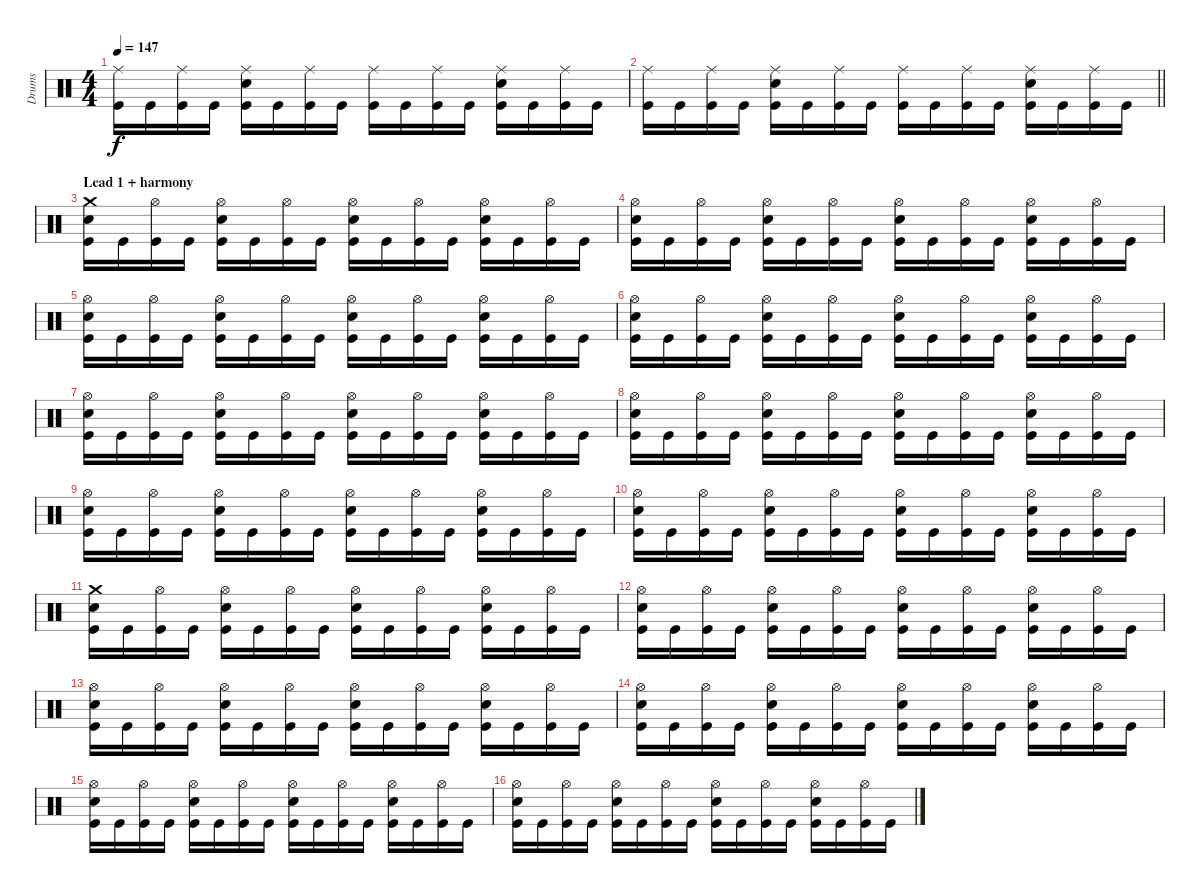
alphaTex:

\track ("Drums" "Drums") {instrument percussion}
\staff {score}
\articulation defaults
\ts (4 4)
\tempo 147
\clef neutral
\ks c
("Ride (middle)" "Kick (hit)").16{dy f} "Kick (hit)".16 ("Ride (middle)" "Kick (hit)").16 "Kick (hit)".16 ("Electric Snare (hit)" "Ride (middle)" "Kick (hit)").16 "Kick (hit)".16 ("Ride (middle)" "Kick (hit)").16 "Kick (hit)".16 ("Ride (middle)" "Kick (hit)").16 "Kick (hit)".16 ("Ride (middle)" "Kick (hit)").16 "Kick (hit)".16 ("Electric Snare (hit)" "Ride (middle)" "Kick (hit)").16 "Kick (hit)".16 ("Ride (middle)" "Kick (hit)").16 "Kick (hit)".16 |
\barLineRight lightlight
("Ride (middle)" "Kick (hit)").16 "Kick (hit)".16 ("Ride (middle)" "Kick (hit)").16 "Kick (hit)".16 ("Electric Snare (hit)" "Ride (middle)" "Kick (hit)").16 "Kick (hit)".16 ("Ride (middle)" "Kick (hit)").16 "Kick (hit)".16 ("Ride (middle)" "Kick (hit)").16 "Kick (hit)".16 ("Ride (middle)" "Kick (hit)").16 "Kick (hit)".16 ("Electric Snare (hit)" "Ride (middle)" "Kick (hit)").16 "Kick (hit)".16 ("Ride (middle)" "Kick (hit)").16 "Kick (hit)".16 |
\section ("" "Lead 1 + harmony")
("Electric Snare (hit)" "Crash medium (hit)" "Kick (hit)").16 "Kick (hit)".16 ("Hi-Hat (open)" "Kick (hit)").16 "Kick (hit)".16 ("Electric Snare (hit)" "Hi-Hat (open)" "Kick (hit)").16 "Kick (hit)".16 ("Hi-Hat (open)" "Kick (hit)").16 "Kick (hit)".16 ("Electric Snare (hit)" "Hi-Hat (open)" "Kick (hit)").16 "Kick (hit)".16 ("Hi-Hat (open)" "Kick (hit)").16 "Kick (hit)".16 ("Electric Snare (hit)" "Hi-Hat (open)" "Kick (hit)").16 "Kick (hit)".16 ("Hi-Hat (open)" "Kick (hit)").16 "Kick (hit)".16 |
("Electric Snare (hit)" "Hi-Hat (open)" "Kick (hit)").16 "Kick (hit)".16 ("Hi-Hat (open)" "Kick (hit)").16 "Kick (hit)".16 ("Electric Snare (hit)" "Hi-Hat (open)" "Kick (hit)").16 "Kick (hit)".16 ("Hi-Hat (open)" "Kick (hit)").16 "Kick (hit)".16 ("Electric Snare (hit)" "Hi-Hat (open)" "Kick (hit)").16 "Kick (hit)".16 ("Hi-Hat (open)" "Kick (hit)").16 "Kick (hit)".16 ("Electric Snare (hit)" "Hi-Hat (open)" "Kick (hit)").16 "Kick (hit)".16 ("Hi-Hat (open)" "Kick (hit)").16 "Kick (hit)".16 |
("Electric Snare (hit)" "Hi-Hat (open)" "Kick (hit)").16 "Kick (hit)".16 ("Hi-Hat (open)" "Kick (hit)").16 "Kick (hit)".16 ("Electric Snare (hit)" "Hi-Hat (open)" "Kick (hit)").16 "Kick (hit)".16 ("Hi-Hat (open)" "Kick (hit)").16 "Kick (hit)".16 ("Electric Snare (hit)" "Hi-Hat (open)" "Kick (hit)").16 "Kick (hit)".16 ("Hi-Hat (open)" "Kick (hit)").16 "Kick (hit)".16 ("Electric Snare (hit)" "Hi-Hat (open)" "Kick (hit)").16 "Kick (hit)".16 ("Hi-Hat (open)" "Kick (hit)").16 "Kick (hit)".16 |
("Electric Snare (hit)" "Hi-Hat (open)" "Kick (hit)").16 "Kick (hit)".16 ("Hi-Hat (open)" "Kick (hit)").16 "Kick (hit)".16 ("Electric Snare (hit)" "Hi-Hat (open)" "Kick (hit)").16 "Kick (hit)".16 ("Hi-Hat (open)" "Kick (hit)").16 "Kick (hit)".16 ("Electric Snare (hit)" "Hi-Hat (open)" "Kick (hit)").16 "Kick (hit)".16 ("Hi-Hat (open)" "Kick (hit)").16 "Kick (hit)".16 ("Electric Snare (hit)" "Hi-Hat (open)" "Kick (hit)").16 "Kick (hit)".16 ("Hi-Hat (open)" "Kick (hit)").16 "Kick (hit)".16 |
("Electric Snare (hit)" "Hi-Hat (open)" "Kick (hit)").16 "Kick (hit)".16 ("Hi-Hat (open)" "Kick (hit)").16 "Kick (hit)".16 ("Electric Snare (hit)" "Hi-Hat (open)" "Kick (hit)").16 "Kick (hit)".16 ("Hi-Hat (open)" "Kick (hit)").16 "Kick (hit)".16 ("Electric Snare (hit)" "Hi-Hat (open)" "Kick (hit)").16 "Kick (hit)".16 ("Hi-Hat (open)" "Kick (hit)").16 "Kick (hit)".16 ("Electric Snare (hit)" "Hi-Hat (open)" "Kick (hit)").16 "Kick (hit)".16 ("Hi-Hat (open)" "Kick (hit)").16 "Kick (hit)".16 |
("Electric Snare (hit)" "Hi-Hat (open)" "Kick (hit)").16 "Kick (hit)".16 ("Hi-Hat (open)" "Kick (hit)").16 "Kick (hit)".16 ("Electric Snare (hit)" "Hi-Hat (open)" "Kick (hit)").16 "Kick (hit)".16 ("Hi-Hat (open)" "Kick (hit)").16 "Kick (hit)".16 ("Electric Snare (hit)" "Hi-Hat (open)" "Kick (hit)").16 "Kick (hit)".16 ("Hi-Hat (open)" "Kick (hit)").16 "Kick (hit)".16 ("Electric Snare (hit)" "Hi-Hat (open)" "Kick (hit)").16 "Kick (hit)".16 ("Hi-Hat (open)" "Kick (hit)").16 "Kick (hit)".16 |
("Electric Snare (hit)" "Hi-Hat (open)" "Kick (hit)").16 "Kick (hit)".16 ("Hi-Hat (open)" "Kick (hit)").16 "Kick (hit)".16 ("Electric Snare (hit)" "Hi-Hat (open)" "Kick (hit)").16 "Kick (hit)".16 ("Hi-Hat (open)" "Kick (hit)").16 "Kick (hit)".16 ("Electric Snare (hit)" "Hi-Hat (open)" "Kick (hit)").16 "Kick (hit)".16 ("Hi-Hat (open)" "Kick (hit)").16 "Kick (hit)".16 ("Electric Snare (hit)" "Hi-Hat (open)" "Kick (hit)").16 "Kick (hit)".16 ("Hi-Hat (open)" "Kick (hit)").16 "Kick (hit)".16 |
("Electric Snare (hit)" "Hi-Hat (open)" "Kick (hit)").16 "Kick (hit)".16 ("Hi-Hat (open)" "Kick (hit)").16 "Kick (hit)".16 ("Electric Snare (hit)" "Hi-Hat (open)" "Kick (hit)").16 "Kick (hit)".16 ("Hi-Hat (open)" "Kick (hit)").16 "Kick (hit)".16 ("Electric Snare (hit)" "Hi-Hat (open)" "Kick (hit)").16 "Kick (hit)".16 ("Hi-Hat (open)" "Kick (hit)").16 "Kick (hit)".16 ("Electric Snare (hit)" "Hi-Hat (open)" "Kick (hit)").16 "Kick (hit)".16 ("Hi-Hat (open)" "Kick (hit)").16 "Kick (hit)".16 |
("Electric Snare (hit)" "Crash medium (hit)" "Kick (hit)").16 "Kick (hit)".16 ("Hi-Hat (open)" "Kick (hit)").16 "Kick (hit)".16 ("Electric Snare (hit)" "Hi-Hat (open)" "Kick (hit)").16 "Kick (hit)".16 ("Hi-Hat (open)" "Kick (hit)").16 "Kick (hit)".16 ("Electric Snare (hit)" "Hi-Hat (open)" "Kick (hit)").16 "Kick (hit)".16 ("Hi-Hat (open)" "Kick (hit)").16 "Kick (hit)".16 ("Electric Snare (hit)" "Hi-Hat (open)" "Kick (hit)").16 "Kick (hit)".16 ("Hi-Hat (open)" "Kick (hit)").16 "Kick (hit)".16 |
("Electric Snare (hit)" "Hi-Hat (open)" "Kick (hit)").16 "Kick (hit)".16 ("Hi-Hat (open)" "Kick (hit)").16 "Kick (hit)".16 ("Electric Snare (hit)" "Hi-Hat (open)" "Kick (hit)").16 "Kick (hit)".16 ("Hi-Hat (open)" "Kick (hit)").16 "Kick (hit)".16 ("Electric Snare (hit)" "Hi-Hat (open)" "Kick (hit)").16 "Kick (hit)".16 ("Hi-Hat (open)" "Kick (hit)").16 "Kick (hit)".16 ("Electric Snare (hit)" "Hi-Hat (open)" "Kick (hit)").16 "Kick (hit)".16 ("Hi-Hat (open)" "Kick (hit)").16 "Kick (hit)".16 |
("Electric Snare (hit)" "Hi-Hat (open)" "Kick (hit)").16 "Kick (hit)".16 ("Hi-Hat (open)" "Kick (hit)").16 "Kick (hit)".16 ("Electric Snare (hit)" "Hi-Hat (open)" "Kick (hit)").16 "Kick (hit)".16 ("Hi-Hat (open)" "Kick (hit)").16 "Kick (hit)".16 ("Electric Snare (hit)" "Hi-Hat (open)" "Kick (hit)").16 "Kick (hit)".16 ("Hi-Hat (open)" "Kick (hit)").16 "Kick (hit)".16 ("Electric Snare (hit)" "Hi-Hat (open)" "Kick (hit)").16 "Kick (hit)".16 ("Hi-Hat (open)" "Kick (hit)").16 "Kick (hit)".16 |
("Electric Snare (hit)" "Hi-Hat (open)" "Kick (hit)").16 "Kick (hit)".16 ("Hi-Hat (open)" "Kick (hit)").16 "Kick (hit)".16 ("Electric Snare (hit)" "Hi-Hat (open)" "Kick (hit)").16 "Kick (hit)".16 ("Hi-Hat (open)" "Kick (hit)").16 "Kick (hit)".16 ("Electric Snare (hit)" "Hi-Hat (open)" "Kick (hit)").16 "Kick (hit)".16 ("Hi-Hat (open)" "Kick (hit)").16 "Kick (hit)".16 ("Electric Snare (hit)" "Hi-Hat (open)" "Kick (hit)").16 "Kick (hit)".16 ("Hi-Hat (open)" "Kick (hit)").16 "Kick (hit)".16 |
("Electric Snare (hit)" "Hi-Hat (open)" "Kick (hit)").16 "Kick (hit)".16 ("Hi-Hat (open)" "Kick (hit)").16 "Kick (hit)".16 ("Electric Snare (hit)" "Hi-Hat (open)" "Kick (hit)").16 "Kick (hit)".16 ("Hi-Hat (open)" "Kick (hit)").16 "Kick (hit)".16 ("Electric Snare (hit)" "Hi-Hat (open)" "Kick (hit)").16 "Kick (hit)".16 ("Hi-Hat (open)" "Kick (hit)").16 "Kick (hit)".16 ("Electric Snare (hit)" "Hi-Hat (open)" "Kick (hit)").16 "Kick (hit)".16 ("Hi-Hat (open)" "Kick (hit)").16 "Kick (hit)".16 |
("Electric Snare (hit)" "Hi-Hat (open)" "Kick (hit)").16 "Kick (hit)".16 ("Hi-Hat (open)" "Kick (hit)").16 "Kick (hit)".16 ("Electric Snare (hit)" "Hi-Hat (open)" "Kick (hit)").16 "Kick (hit)".16 ("Hi-Hat (open)" "Kick (hit)").16 "Kick (hit)".16 ("Electric Snare (hit)" "Hi-Hat (open)" "Kick (hit)").16 "Kick (hit)".16 ("Hi-Hat (open)" "Kick (hit)").16 "Kick (hit)".16 ("Electric Snare (hit)" "Hi-Hat (open)" "Kick (hit)").16 "Kick (hit)".16 ("Hi-Hat (open)" "Kick (hit)").16 "Kick (hit)".16
